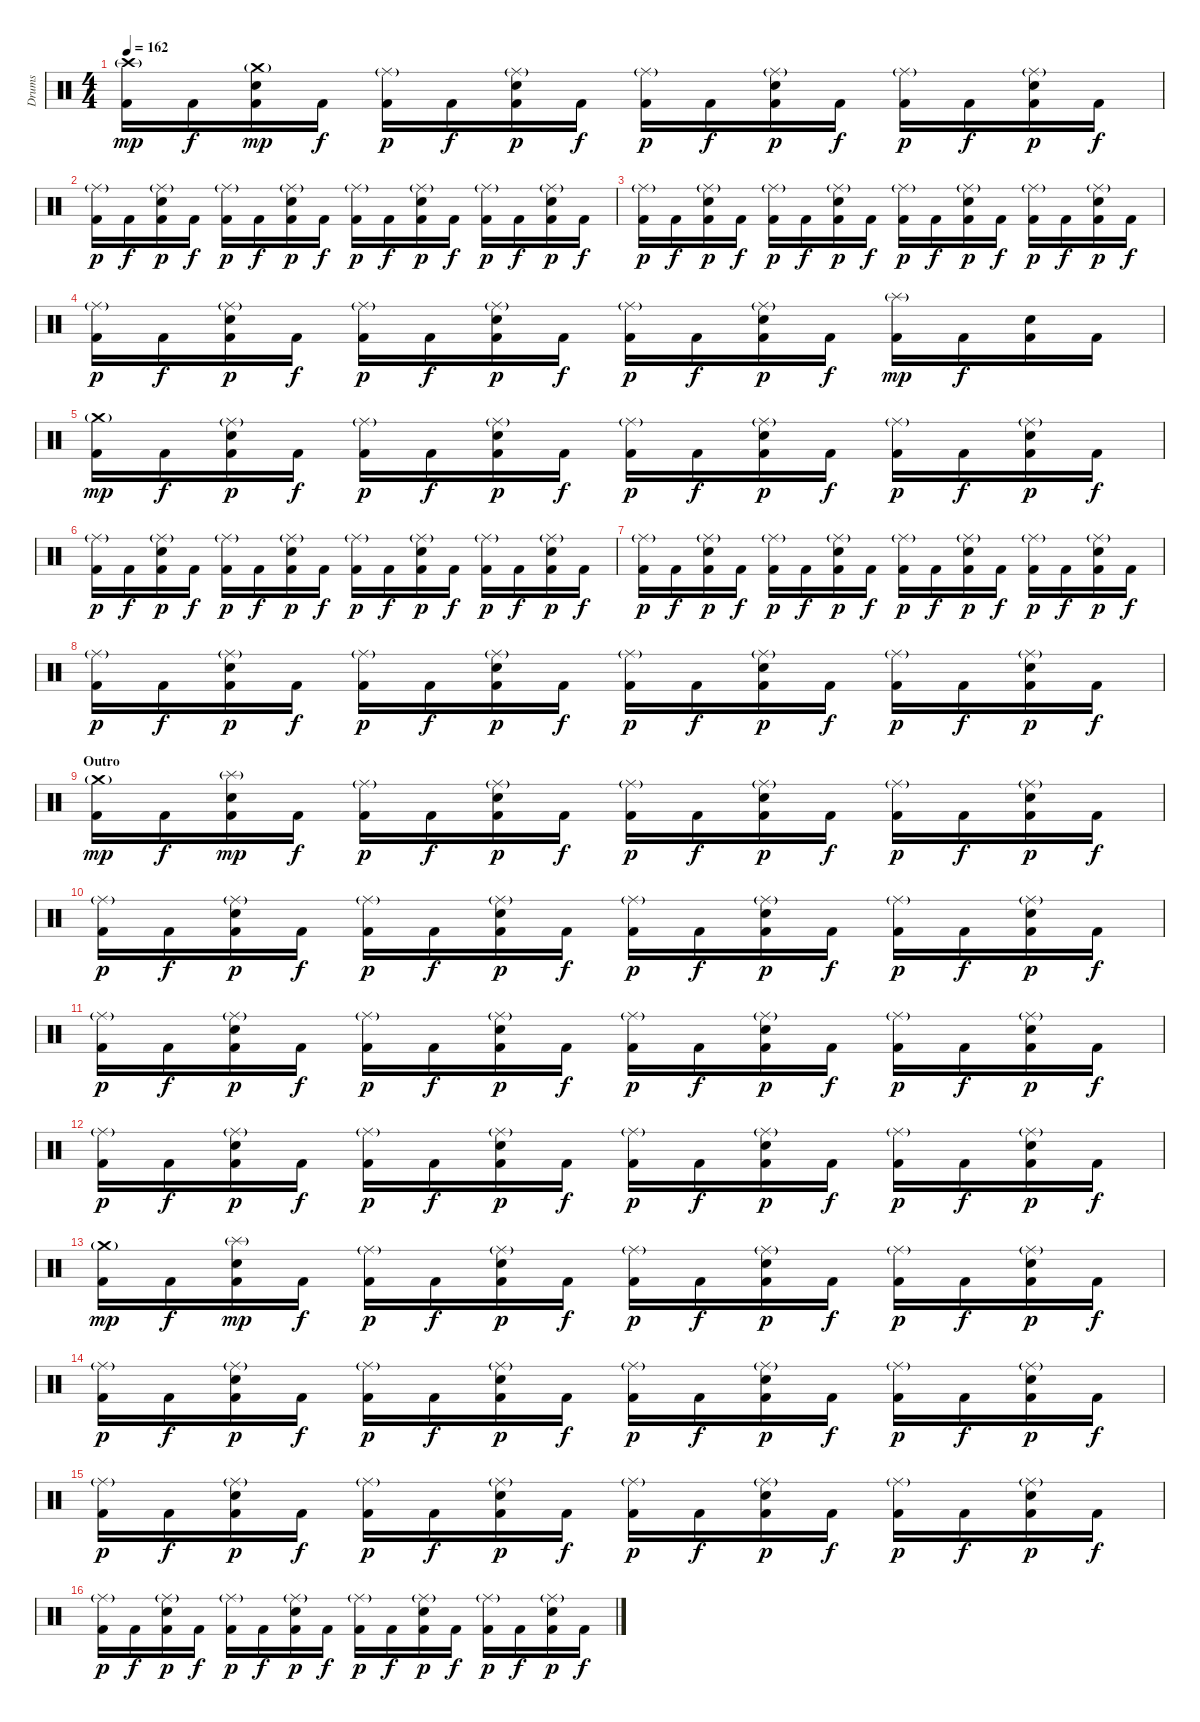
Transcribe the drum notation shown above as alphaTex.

\track ("Drums" "Drums") {instrument percussion}
\staff {score}
\articulation defaults
\ts (4 4)
\tempo 162
\clef neutral
\ks c
("Crash high (hit)"{g} "Kick (hit) 2").16{dy mp} "Kick (hit) 2".16{dy f} ("Crash medium (hit)"{g} "Snare (hit) 2" "Kick (hit) 2").16{dy mp} "Kick (hit) 2".16{dy f} ("Ride (middle)"{g} "Kick (hit) 2").16{dy p} "Kick (hit) 2".16{dy f} ("Ride (middle)"{g} "Snare (hit) 2" "Kick (hit) 2").16{dy p} "Kick (hit) 2".16{dy f} ("Ride (middle)"{g} "Kick (hit) 2").16{dy p} "Kick (hit) 2".16{dy f} ("Ride (middle)"{g} "Snare (hit) 2" "Kick (hit) 2").16{dy p} "Kick (hit) 2".16{dy f} ("Ride (middle)"{g} "Kick (hit) 2").16{dy p} "Kick (hit) 2".16{dy f} ("Ride (middle)"{g} "Snare (hit) 2" "Kick (hit) 2").16{dy p} "Kick (hit) 2".16{dy f} |
("Ride (middle)"{g} "Kick (hit) 2").16{dy p} "Kick (hit) 2".16{dy f} ("Ride (middle)"{g} "Snare (hit) 2" "Kick (hit) 2").16{dy p} "Kick (hit) 2".16{dy f} ("Ride (middle)"{g} "Kick (hit) 2").16{dy p} "Kick (hit) 2".16{dy f} ("Ride (middle)"{g} "Snare (hit) 2" "Kick (hit) 2").16{dy p} "Kick (hit) 2".16{dy f} ("Ride (middle)"{g} "Kick (hit) 2").16{dy p} "Kick (hit) 2".16{dy f} ("Ride (middle)"{g} "Snare (hit) 2" "Kick (hit) 2").16{dy p} "Kick (hit) 2".16{dy f} ("Ride (middle)"{g} "Kick (hit) 2").16{dy p} "Kick (hit) 2".16{dy f} ("Ride (middle)"{g} "Snare (hit) 2" "Kick (hit) 2").16{dy p} "Kick (hit) 2".16{dy f} |
("Ride (middle)"{g} "Kick (hit) 2").16{dy p} "Kick (hit) 2".16{dy f} ("Ride (middle)"{g} "Snare (hit) 2" "Kick (hit) 2").16{dy p} "Kick (hit) 2".16{dy f} ("Ride (middle)"{g} "Kick (hit) 2").16{dy p} "Kick (hit) 2".16{dy f} ("Ride (middle)"{g} "Snare (hit) 2" "Kick (hit) 2").16{dy p} "Kick (hit) 2".16{dy f} ("Ride (middle)"{g} "Kick (hit) 2").16{dy p} "Kick (hit) 2".16{dy f} ("Ride (middle)"{g} "Snare (hit) 2" "Kick (hit) 2").16{dy p} "Kick (hit) 2".16{dy f} ("Ride (middle)"{g} "Kick (hit) 2").16{dy p} "Kick (hit) 2".16{dy f} ("Ride (middle)"{g} "Snare (hit) 2" "Kick (hit) 2").16{dy p} "Kick (hit) 2".16{dy f} |
("Ride (middle)"{g} "Kick (hit) 2").16{dy p} "Kick (hit) 2".16{dy f} ("Ride (middle)"{g} "Snare (hit) 2" "Kick (hit) 2").16{dy p} "Kick (hit) 2".16{dy f} ("Ride (middle)"{g} "Kick (hit) 2").16{dy p} "Kick (hit) 2".16{dy f} ("Ride (middle)"{g} "Snare (hit) 2" "Kick (hit) 2").16{dy p} "Kick (hit) 2".16{dy f} ("Ride (middle)"{g} "Kick (hit) 2").16{dy p} "Kick (hit) 2".16{dy f} ("Ride (middle)"{g} "Snare (hit) 2" "Kick (hit) 2").16{dy p} "Kick (hit) 2".16{dy f} ("Splash (hit)"{g} "Kick (hit) 2").16{dy mp} "Kick (hit) 2".16{dy f} ("Snare (hit) 2" "Kick (hit) 2").16 "Kick (hit) 2".16 |
("Crash medium (hit)"{g} "Kick (hit) 2").16{dy mp} "Kick (hit) 2".16{dy f} ("Ride (middle)"{g} "Snare (hit) 2" "Kick (hit) 2").16{dy p} "Kick (hit) 2".16{dy f} ("Ride (middle)"{g} "Kick (hit) 2").16{dy p} "Kick (hit) 2".16{dy f} ("Ride (middle)"{g} "Snare (hit) 2" "Kick (hit) 2").16{dy p} "Kick (hit) 2".16{dy f} ("Ride (middle)"{g} "Kick (hit) 2").16{dy p} "Kick (hit) 2".16{dy f} ("Ride (middle)"{g} "Snare (hit) 2" "Kick (hit) 2").16{dy p} "Kick (hit) 2".16{dy f} ("Ride (middle)"{g} "Kick (hit) 2").16{dy p} "Kick (hit) 2".16{dy f} ("Ride (middle)"{g} "Snare (hit) 2" "Kick (hit) 2").16{dy p} "Kick (hit) 2".16{dy f} |
("Ride (middle)"{g} "Kick (hit) 2").16{dy p} "Kick (hit) 2".16{dy f} ("Ride (middle)"{g} "Snare (hit) 2" "Kick (hit) 2").16{dy p} "Kick (hit) 2".16{dy f} ("Ride (middle)"{g} "Kick (hit) 2").16{dy p} "Kick (hit) 2".16{dy f} ("Ride (middle)"{g} "Snare (hit) 2" "Kick (hit) 2").16{dy p} "Kick (hit) 2".16{dy f} ("Ride (middle)"{g} "Kick (hit) 2").16{dy p} "Kick (hit) 2".16{dy f} ("Ride (middle)"{g} "Snare (hit) 2" "Kick (hit) 2").16{dy p} "Kick (hit) 2".16{dy f} ("Ride (middle)"{g} "Kick (hit) 2").16{dy p} "Kick (hit) 2".16{dy f} ("Ride (middle)"{g} "Snare (hit) 2" "Kick (hit) 2").16{dy p} "Kick (hit) 2".16{dy f} |
("Ride (middle)"{g} "Kick (hit) 2").16{dy p} "Kick (hit) 2".16{dy f} ("Ride (middle)"{g} "Snare (hit) 2" "Kick (hit) 2").16{dy p} "Kick (hit) 2".16{dy f} ("Ride (middle)"{g} "Kick (hit) 2").16{dy p} "Kick (hit) 2".16{dy f} ("Ride (middle)"{g} "Snare (hit) 2" "Kick (hit) 2").16{dy p} "Kick (hit) 2".16{dy f} ("Ride (middle)"{g} "Kick (hit) 2").16{dy p} "Kick (hit) 2".16{dy f} ("Ride (middle)"{g} "Snare (hit) 2" "Kick (hit) 2").16{dy p} "Kick (hit) 2".16{dy f} ("Ride (middle)"{g} "Kick (hit) 2").16{dy p} "Kick (hit) 2".16{dy f} ("Ride (middle)"{g} "Snare (hit) 2" "Kick (hit) 2").16{dy p} "Kick (hit) 2".16{dy f} |
("Ride (middle)"{g} "Kick (hit) 2").16{dy p} "Kick (hit) 2".16{dy f} ("Ride (middle)"{g} "Snare (hit) 2" "Kick (hit) 2").16{dy p} "Kick (hit) 2".16{dy f} ("Ride (middle)"{g} "Kick (hit) 2").16{dy p} "Kick (hit) 2".16{dy f} ("Ride (middle)"{g} "Snare (hit) 2" "Kick (hit) 2").16{dy p} "Kick (hit) 2".16{dy f} ("Ride (middle)"{g} "Kick (hit) 2").16{dy p} "Kick (hit) 2".16{dy f} ("Ride (middle)"{g} "Snare (hit) 2" "Kick (hit) 2").16{dy p} "Kick (hit) 2".16{dy f} ("Ride (middle)"{g} "Kick (hit) 2").16{dy p} "Kick (hit) 2".16{dy f} ("Ride (middle)"{g} "Snare (hit) 2" "Kick (hit) 2").16{dy p} "Kick (hit) 2".16{dy f} |
\section ("" "Outro")
("Crash medium (hit)"{g} "Kick (hit) 2").16{dy mp} "Kick (hit) 2".16{dy f} ("Splash (hit)"{g} "Snare (hit) 2" "Kick (hit) 2").16{dy mp} "Kick (hit) 2".16{dy f} ("Ride (middle)"{g} "Kick (hit) 2").16{dy p} "Kick (hit) 2".16{dy f} ("Ride (middle)"{g} "Snare (hit) 2" "Kick (hit) 2").16{dy p} "Kick (hit) 2".16{dy f} ("Ride (middle)"{g} "Kick (hit) 2").16{dy p} "Kick (hit) 2".16{dy f} ("Ride (middle)"{g} "Snare (hit) 2" "Kick (hit) 2").16{dy p} "Kick (hit) 2".16{dy f} ("Ride (middle)"{g} "Kick (hit) 2").16{dy p} "Kick (hit) 2".16{dy f} ("Ride (middle)"{g} "Snare (hit) 2" "Kick (hit) 2").16{dy p} "Kick (hit) 2".16{dy f} |
("Ride (middle)"{g} "Kick (hit) 2").16{dy p} "Kick (hit) 2".16{dy f} ("Ride (middle)"{g} "Snare (hit) 2" "Kick (hit) 2").16{dy p} "Kick (hit) 2".16{dy f} ("Ride (middle)"{g} "Kick (hit) 2").16{dy p} "Kick (hit) 2".16{dy f} ("Ride (middle)"{g} "Snare (hit) 2" "Kick (hit) 2").16{dy p} "Kick (hit) 2".16{dy f} ("Ride (middle)"{g} "Kick (hit) 2").16{dy p} "Kick (hit) 2".16{dy f} ("Ride (middle)"{g} "Snare (hit) 2" "Kick (hit) 2").16{dy p} "Kick (hit) 2".16{dy f} ("Ride (middle)"{g} "Kick (hit) 2").16{dy p} "Kick (hit) 2".16{dy f} ("Ride (middle)"{g} "Snare (hit) 2" "Kick (hit) 2").16{dy p} "Kick (hit) 2".16{dy f} |
("Ride (middle)"{g} "Kick (hit) 2").16{dy p} "Kick (hit) 2".16{dy f} ("Ride (middle)"{g} "Snare (hit) 2" "Kick (hit) 2").16{dy p} "Kick (hit) 2".16{dy f} ("Ride (middle)"{g} "Kick (hit) 2").16{dy p} "Kick (hit) 2".16{dy f} ("Ride (middle)"{g} "Snare (hit) 2" "Kick (hit) 2").16{dy p} "Kick (hit) 2".16{dy f} ("Ride (middle)"{g} "Kick (hit) 2").16{dy p} "Kick (hit) 2".16{dy f} ("Ride (middle)"{g} "Snare (hit) 2" "Kick (hit) 2").16{dy p} "Kick (hit) 2".16{dy f} ("Ride (middle)"{g} "Kick (hit) 2").16{dy p} "Kick (hit) 2".16{dy f} ("Ride (middle)"{g} "Snare (hit) 2" "Kick (hit) 2").16{dy p} "Kick (hit) 2".16{dy f} |
("Ride (middle)"{g} "Kick (hit) 2").16{dy p} "Kick (hit) 2".16{dy f} ("Ride (middle)"{g} "Snare (hit) 2" "Kick (hit) 2").16{dy p} "Kick (hit) 2".16{dy f} ("Ride (middle)"{g} "Kick (hit) 2").16{dy p} "Kick (hit) 2".16{dy f} ("Ride (middle)"{g} "Snare (hit) 2" "Kick (hit) 2").16{dy p} "Kick (hit) 2".16{dy f} ("Ride (middle)"{g} "Kick (hit) 2").16{dy p} "Kick (hit) 2".16{dy f} ("Ride (middle)"{g} "Snare (hit) 2" "Kick (hit) 2").16{dy p} "Kick (hit) 2".16{dy f} ("Ride (middle)"{g} "Kick (hit) 2").16{dy p} "Kick (hit) 2".16{dy f} ("Ride (middle)"{g} "Snare (hit) 2" "Kick (hit) 2").16{dy p} "Kick (hit) 2".16{dy f} |
("Crash medium (hit)"{g} "Kick (hit) 2").16{dy mp} "Kick (hit) 2".16{dy f} ("Splash (hit)"{g} "Snare (hit) 2" "Kick (hit) 2").16{dy mp} "Kick (hit) 2".16{dy f} ("Ride (middle)"{g} "Kick (hit) 2").16{dy p} "Kick (hit) 2".16{dy f} ("Ride (middle)"{g} "Snare (hit) 2" "Kick (hit) 2").16{dy p} "Kick (hit) 2".16{dy f} ("Ride (middle)"{g} "Kick (hit) 2").16{dy p} "Kick (hit) 2".16{dy f} ("Ride (middle)"{g} "Snare (hit) 2" "Kick (hit) 2").16{dy p} "Kick (hit) 2".16{dy f} ("Ride (middle)"{g} "Kick (hit) 2").16{dy p} "Kick (hit) 2".16{dy f} ("Ride (middle)"{g} "Snare (hit) 2" "Kick (hit) 2").16{dy p} "Kick (hit) 2".16{dy f} |
("Ride (middle)"{g} "Kick (hit) 2").16{dy p} "Kick (hit) 2".16{dy f} ("Ride (middle)"{g} "Snare (hit) 2" "Kick (hit) 2").16{dy p} "Kick (hit) 2".16{dy f} ("Ride (middle)"{g} "Kick (hit) 2").16{dy p} "Kick (hit) 2".16{dy f} ("Ride (middle)"{g} "Snare (hit) 2" "Kick (hit) 2").16{dy p} "Kick (hit) 2".16{dy f} ("Ride (middle)"{g} "Kick (hit) 2").16{dy p} "Kick (hit) 2".16{dy f} ("Ride (middle)"{g} "Snare (hit) 2" "Kick (hit) 2").16{dy p} "Kick (hit) 2".16{dy f} ("Ride (middle)"{g} "Kick (hit) 2").16{dy p} "Kick (hit) 2".16{dy f} ("Ride (middle)"{g} "Snare (hit) 2" "Kick (hit) 2").16{dy p} "Kick (hit) 2".16{dy f} |
("Ride (middle)"{g} "Kick (hit) 2").16{dy p} "Kick (hit) 2".16{dy f} ("Ride (middle)"{g} "Snare (hit) 2" "Kick (hit) 2").16{dy p} "Kick (hit) 2".16{dy f} ("Ride (middle)"{g} "Kick (hit) 2").16{dy p} "Kick (hit) 2".16{dy f} ("Ride (middle)"{g} "Snare (hit) 2" "Kick (hit) 2").16{dy p} "Kick (hit) 2".16{dy f} ("Ride (middle)"{g} "Kick (hit) 2").16{dy p} "Kick (hit) 2".16{dy f} ("Ride (middle)"{g} "Snare (hit) 2" "Kick (hit) 2").16{dy p} "Kick (hit) 2".16{dy f} ("Ride (middle)"{g} "Kick (hit) 2").16{dy p} "Kick (hit) 2".16{dy f} ("Ride (middle)"{g} "Snare (hit) 2" "Kick (hit) 2").16{dy p} "Kick (hit) 2".16{dy f} |
("Ride (middle)"{g} "Kick (hit) 2").16{dy p} "Kick (hit) 2".16{dy f} ("Ride (middle)"{g} "Snare (hit) 2" "Kick (hit) 2").16{dy p} "Kick (hit) 2".16{dy f} ("Ride (middle)"{g} "Kick (hit) 2").16{dy p} "Kick (hit) 2".16{dy f} ("Ride (middle)"{g} "Snare (hit) 2" "Kick (hit) 2").16{dy p} "Kick (hit) 2".16{dy f} ("Ride (middle)"{g} "Kick (hit) 2").16{dy p} "Kick (hit) 2".16{dy f} ("Ride (middle)"{g} "Snare (hit) 2" "Kick (hit) 2").16{dy p} "Kick (hit) 2".16{dy f} ("Ride (middle)"{g} "Kick (hit) 2").16{dy p} "Kick (hit) 2".16{dy f} ("Ride (middle)"{g} "Snare (hit) 2" "Kick (hit) 2").16{dy p} "Kick (hit) 2".16{dy f}
